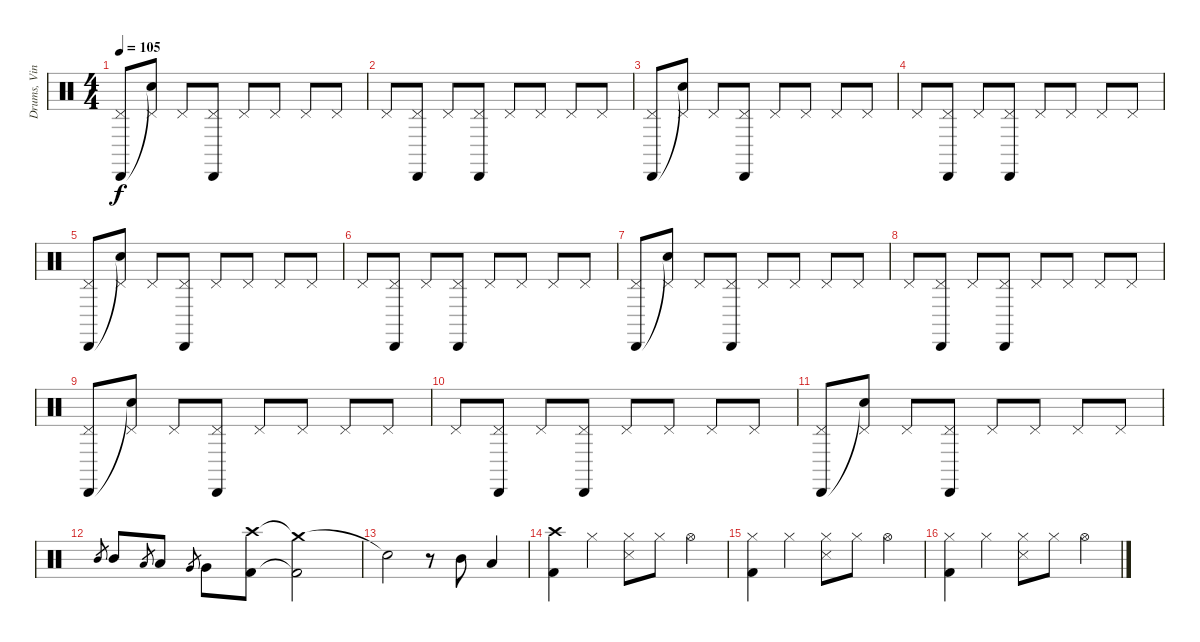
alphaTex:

\track ("Drums, Vinnie" "Drums, Vin") {instrument percussion}
\staff {score}
\articulation defaults
\ts (4 4)
\tempo 105
\clef neutral
\ks c
("Pedal Hi-Hat (hit)" "Cabasa (hit)").8{dy f} ("Pedal Hi-Hat (hit)" "Snare (hit)"{t}).8 "Pedal Hi-Hat (hit)".8 ("Pedal Hi-Hat (hit)" "Cabasa (hit)").8 "Pedal Hi-Hat (hit)".8 "Pedal Hi-Hat (hit)".8 "Pedal Hi-Hat (hit)".8 "Pedal Hi-Hat (hit)".8 |
"Pedal Hi-Hat (hit)".8 ("Pedal Hi-Hat (hit)" "Cabasa (hit)").8 "Pedal Hi-Hat (hit)".8 ("Pedal Hi-Hat (hit)" "Cabasa (hit)").8 "Pedal Hi-Hat (hit)".8 "Pedal Hi-Hat (hit)".8 "Pedal Hi-Hat (hit)".8 "Pedal Hi-Hat (hit)".8 |
("Pedal Hi-Hat (hit)" "Cabasa (hit)").8 ("Pedal Hi-Hat (hit)" "Snare (hit)"{t}).8 "Pedal Hi-Hat (hit)".8 ("Pedal Hi-Hat (hit)" "Cabasa (hit)").8 "Pedal Hi-Hat (hit)".8 "Pedal Hi-Hat (hit)".8 "Pedal Hi-Hat (hit)".8 "Pedal Hi-Hat (hit)".8 |
"Pedal Hi-Hat (hit)".8 ("Pedal Hi-Hat (hit)" "Cabasa (hit)").8 "Pedal Hi-Hat (hit)".8 ("Pedal Hi-Hat (hit)" "Cabasa (hit)").8 "Pedal Hi-Hat (hit)".8 "Pedal Hi-Hat (hit)".8 "Pedal Hi-Hat (hit)".8 "Pedal Hi-Hat (hit)".8 |
("Pedal Hi-Hat (hit)" "Cabasa (hit)").8 ("Pedal Hi-Hat (hit)" "Snare (hit)"{t}).8 "Pedal Hi-Hat (hit)".8 ("Pedal Hi-Hat (hit)" "Cabasa (hit)").8 "Pedal Hi-Hat (hit)".8 "Pedal Hi-Hat (hit)".8 "Pedal Hi-Hat (hit)".8 "Pedal Hi-Hat (hit)".8 |
"Pedal Hi-Hat (hit)".8 ("Pedal Hi-Hat (hit)" "Cabasa (hit)").8 "Pedal Hi-Hat (hit)".8 ("Pedal Hi-Hat (hit)" "Cabasa (hit)").8 "Pedal Hi-Hat (hit)".8 "Pedal Hi-Hat (hit)".8 "Pedal Hi-Hat (hit)".8 "Pedal Hi-Hat (hit)".8 |
("Pedal Hi-Hat (hit)" "Cabasa (hit)").8 ("Pedal Hi-Hat (hit)" "Snare (hit)"{t}).8 "Pedal Hi-Hat (hit)".8 ("Pedal Hi-Hat (hit)" "Cabasa (hit)").8 "Pedal Hi-Hat (hit)".8 "Pedal Hi-Hat (hit)".8 "Pedal Hi-Hat (hit)".8 "Pedal Hi-Hat (hit)".8 |
"Pedal Hi-Hat (hit)".8 ("Pedal Hi-Hat (hit)" "Cabasa (hit)").8 "Pedal Hi-Hat (hit)".8 ("Pedal Hi-Hat (hit)" "Cabasa (hit)").8 "Pedal Hi-Hat (hit)".8 "Pedal Hi-Hat (hit)".8 "Pedal Hi-Hat (hit)".8 "Pedal Hi-Hat (hit)".8 |
("Pedal Hi-Hat (hit)" "Cabasa (hit)").8 ("Pedal Hi-Hat (hit)" "Snare (hit)"{t}).8 "Pedal Hi-Hat (hit)".8 ("Pedal Hi-Hat (hit)" "Cabasa (hit)").8 "Pedal Hi-Hat (hit)".8 "Pedal Hi-Hat (hit)".8 "Pedal Hi-Hat (hit)".8 "Pedal Hi-Hat (hit)".8 |
"Pedal Hi-Hat (hit)".8 ("Pedal Hi-Hat (hit)" "Cabasa (hit)").8 "Pedal Hi-Hat (hit)".8 ("Pedal Hi-Hat (hit)" "Cabasa (hit)").8 "Pedal Hi-Hat (hit)".8 "Pedal Hi-Hat (hit)".8 "Pedal Hi-Hat (hit)".8 "Pedal Hi-Hat (hit)".8 |
("Pedal Hi-Hat (hit)" "Cabasa (hit)").8 ("Pedal Hi-Hat (hit)" "Snare (hit)"{t}).8 "Pedal Hi-Hat (hit)".8 ("Pedal Hi-Hat (hit)" "Cabasa (hit)").8 "Pedal Hi-Hat (hit)".8 "Pedal Hi-Hat (hit)".8 "Pedal Hi-Hat (hit)".8 "Pedal Hi-Hat (hit)".8 |
"Mid Tom (hit)".8{gr} "Mid Tom (hit)".8 "Low Tom (hit)".8{gr} "Low Tom (hit)".8 "Very Low Tom (hit)".8{gr} "Very Low Tom (hit)".8 ("Crash high (hit)" "Kick (hit) 2").8 ("Crash medium (hit)"{t} "Kick (hit) 2"{t}).2 |
"Snare (hit)"{t}.2 r.8 "Mid Tom (hit)".8 "Low Tom (hit)".4 |
("Crash high (hit)" "Kick (hit) 2").4 "Hi-Hat (closed)".4 ("Hi-Hat (closed)" "Snare (side stick) 3").8 "Hi-Hat (closed)".8 "Hi-Hat (open)".4 |
("Hi-Hat (closed)" "Kick (hit) 2").4 "Hi-Hat (closed)".4 ("Hi-Hat (closed)" "Snare (side stick) 3").8 "Hi-Hat (closed)".8 "Hi-Hat (open)".4 |
("Hi-Hat (closed)" "Kick (hit) 2").4 "Hi-Hat (closed)".4 ("Hi-Hat (closed)" "Snare (side stick) 3").8 "Hi-Hat (closed)".8 "Hi-Hat (open)".4
